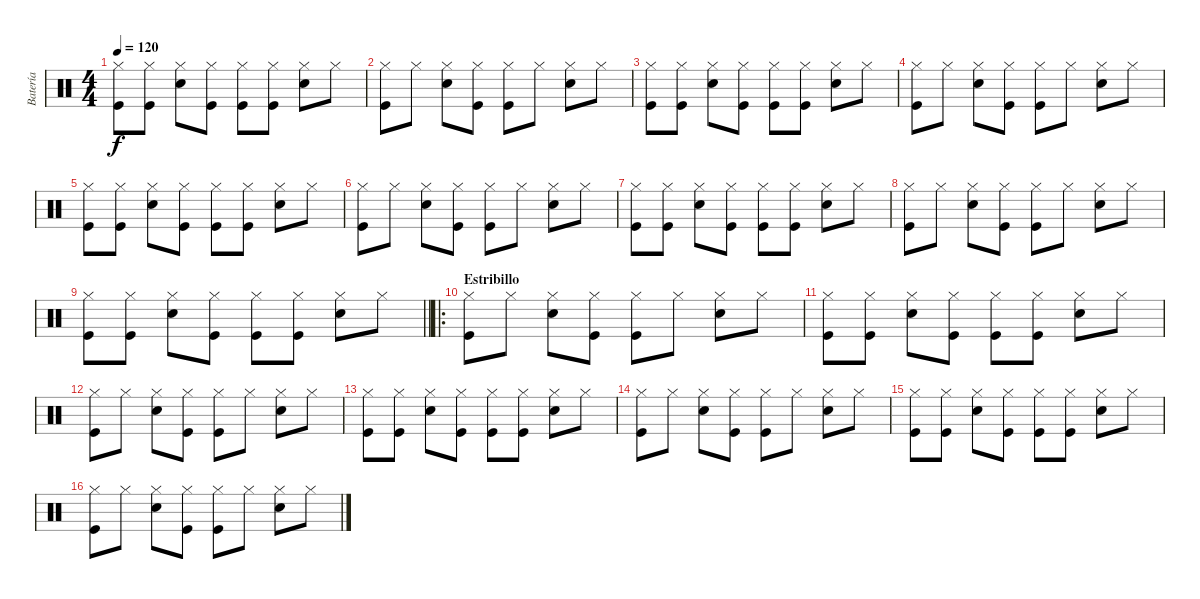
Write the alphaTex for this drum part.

\track ("Batería" "Batería") {instrument percussion}
\staff {score}
\articulation defaults
\ts (4 4)
\tempo 120
\clef neutral
\ks c
("Hi-Hat (closed)" "Kick (hit)").8{dy f} ("Hi-Hat (closed)" "Kick (hit)").8 ("Hi-Hat (closed)" "Snare (hit) 2").8 ("Hi-Hat (closed)" "Kick (hit)").8 ("Hi-Hat (closed)" "Kick (hit)").8 ("Hi-Hat (closed)" "Kick (hit)").8 ("Hi-Hat (closed)" "Snare (hit) 2").8 "Hi-Hat (closed)".8 |
("Hi-Hat (closed)" "Kick (hit)").8 "Hi-Hat (closed)".8 ("Hi-Hat (closed)" "Snare (hit) 2").8 ("Hi-Hat (closed)" "Kick (hit)").8 ("Hi-Hat (closed)" "Kick (hit)").8 "Hi-Hat (closed)".8 ("Hi-Hat (closed)" "Snare (hit) 2").8 "Hi-Hat (closed)".8 |
("Hi-Hat (closed)" "Kick (hit)").8 ("Hi-Hat (closed)" "Kick (hit)").8 ("Hi-Hat (closed)" "Snare (hit) 2").8 ("Hi-Hat (closed)" "Kick (hit)").8 ("Hi-Hat (closed)" "Kick (hit)").8 ("Hi-Hat (closed)" "Kick (hit)").8 ("Hi-Hat (closed)" "Snare (hit) 2").8 "Hi-Hat (closed)".8 |
("Hi-Hat (closed)" "Kick (hit)").8 "Hi-Hat (closed)".8 ("Hi-Hat (closed)" "Snare (hit) 2").8 ("Hi-Hat (closed)" "Kick (hit)").8 ("Hi-Hat (closed)" "Kick (hit)").8 "Hi-Hat (closed)".8 ("Hi-Hat (closed)" "Snare (hit) 2").8 "Hi-Hat (closed)".8 |
("Hi-Hat (closed)" "Kick (hit)").8 ("Hi-Hat (closed)" "Kick (hit)").8 ("Hi-Hat (closed)" "Snare (hit) 2").8 ("Hi-Hat (closed)" "Kick (hit)").8 ("Hi-Hat (closed)" "Kick (hit)").8 ("Hi-Hat (closed)" "Kick (hit)").8 ("Hi-Hat (closed)" "Snare (hit) 2").8 "Hi-Hat (closed)".8 |
("Hi-Hat (closed)" "Kick (hit)").8 "Hi-Hat (closed)".8 ("Hi-Hat (closed)" "Snare (hit) 2").8 ("Hi-Hat (closed)" "Kick (hit)").8 ("Hi-Hat (closed)" "Kick (hit)").8 "Hi-Hat (closed)".8 ("Hi-Hat (closed)" "Snare (hit) 2").8 "Hi-Hat (closed)".8 |
("Hi-Hat (closed)" "Kick (hit)").8 ("Hi-Hat (closed)" "Kick (hit)").8 ("Hi-Hat (closed)" "Snare (hit) 2").8 ("Hi-Hat (closed)" "Kick (hit)").8 ("Hi-Hat (closed)" "Kick (hit)").8 ("Hi-Hat (closed)" "Kick (hit)").8 ("Hi-Hat (closed)" "Snare (hit) 2").8 "Hi-Hat (closed)".8 |
("Hi-Hat (closed)" "Kick (hit)").8 "Hi-Hat (closed)".8 ("Hi-Hat (closed)" "Snare (hit) 2").8 ("Hi-Hat (closed)" "Kick (hit)").8 ("Hi-Hat (closed)" "Kick (hit)").8 "Hi-Hat (closed)".8 ("Hi-Hat (closed)" "Snare (hit) 2").8 "Hi-Hat (closed)".8 |
\barLineRight lightlight
("Hi-Hat (closed)" "Kick (hit)").8 ("Hi-Hat (closed)" "Kick (hit)").8 ("Hi-Hat (closed)" "Snare (hit) 2").8 ("Hi-Hat (closed)" "Kick (hit)").8 ("Hi-Hat (closed)" "Kick (hit)").8 ("Hi-Hat (closed)" "Kick (hit)").8 ("Hi-Hat (closed)" "Snare (hit) 2").8 "Hi-Hat (closed)".8 |
\ro
\section ("" "Estribillo")
("Hi-Hat (closed)" "Kick (hit)").8 "Hi-Hat (closed)".8 ("Hi-Hat (closed)" "Snare (hit) 2").8 ("Hi-Hat (closed)" "Kick (hit)").8 ("Hi-Hat (closed)" "Kick (hit)").8 "Hi-Hat (closed)".8 ("Hi-Hat (closed)" "Snare (hit) 2").8 "Hi-Hat (closed)".8 |
("Hi-Hat (closed)" "Kick (hit)").8 ("Hi-Hat (closed)" "Kick (hit)").8 ("Hi-Hat (closed)" "Snare (hit) 2").8 ("Hi-Hat (closed)" "Kick (hit)").8 ("Hi-Hat (closed)" "Kick (hit)").8 ("Hi-Hat (closed)" "Kick (hit)").8 ("Hi-Hat (closed)" "Snare (hit) 2").8 "Hi-Hat (closed)".8 |
("Hi-Hat (closed)" "Kick (hit)").8 "Hi-Hat (closed)".8 ("Hi-Hat (closed)" "Snare (hit) 2").8 ("Hi-Hat (closed)" "Kick (hit)").8 ("Hi-Hat (closed)" "Kick (hit)").8 "Hi-Hat (closed)".8 ("Hi-Hat (closed)" "Snare (hit) 2").8 "Hi-Hat (closed)".8 |
("Hi-Hat (closed)" "Kick (hit)").8 ("Hi-Hat (closed)" "Kick (hit)").8 ("Hi-Hat (closed)" "Snare (hit) 2").8 ("Hi-Hat (closed)" "Kick (hit)").8 ("Hi-Hat (closed)" "Kick (hit)").8 ("Hi-Hat (closed)" "Kick (hit)").8 ("Hi-Hat (closed)" "Snare (hit) 2").8 "Hi-Hat (closed)".8 |
("Hi-Hat (closed)" "Kick (hit)").8 "Hi-Hat (closed)".8 ("Hi-Hat (closed)" "Snare (hit) 2").8 ("Hi-Hat (closed)" "Kick (hit)").8 ("Hi-Hat (closed)" "Kick (hit)").8 "Hi-Hat (closed)".8 ("Hi-Hat (closed)" "Snare (hit) 2").8 "Hi-Hat (closed)".8 |
("Hi-Hat (closed)" "Kick (hit)").8 ("Hi-Hat (closed)" "Kick (hit)").8 ("Hi-Hat (closed)" "Snare (hit) 2").8 ("Hi-Hat (closed)" "Kick (hit)").8 ("Hi-Hat (closed)" "Kick (hit)").8 ("Hi-Hat (closed)" "Kick (hit)").8 ("Hi-Hat (closed)" "Snare (hit) 2").8 "Hi-Hat (closed)".8 |
("Hi-Hat (closed)" "Kick (hit)").8 "Hi-Hat (closed)".8 ("Hi-Hat (closed)" "Snare (hit) 2").8 ("Hi-Hat (closed)" "Kick (hit)").8 ("Hi-Hat (closed)" "Kick (hit)").8 "Hi-Hat (closed)".8 ("Hi-Hat (closed)" "Snare (hit) 2").8 "Hi-Hat (closed)".8
